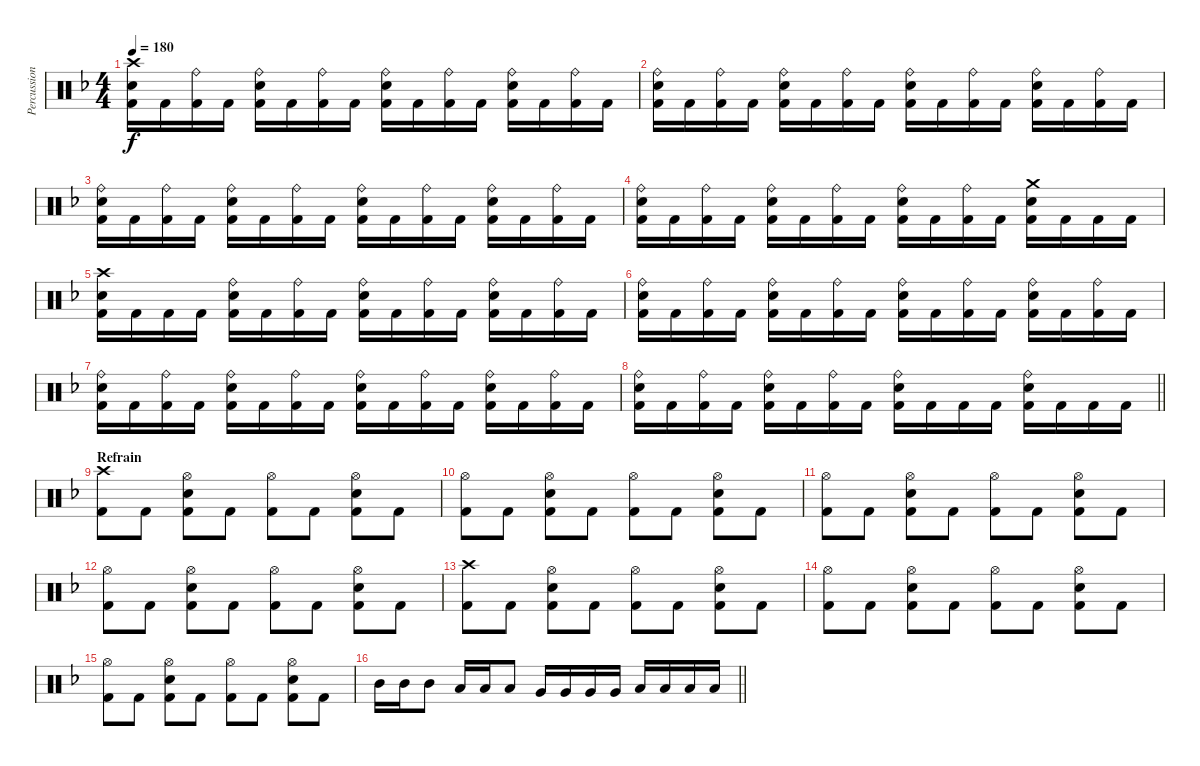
\track ("Percussion" "Percussion") {instrument percussion}
\staff {score}
\articulation defaults
\ts (4 4)
\tempo 180
\clef neutral
\ks dminor
("Crash high (hit)" "Snare (hit) 2" "Kick (hit) 2").16{dy f} "Kick (hit) 2".16 ("Ride (bell)" "Kick (hit) 2").16 "Kick (hit) 2".16 ("Ride (bell)" "Snare (hit) 2" "Kick (hit) 2").16 "Kick (hit) 2".16 ("Ride (bell)" "Kick (hit) 2").16 "Kick (hit) 2".16 ("Ride (bell)" "Snare (hit) 2" "Kick (hit) 2").16 "Kick (hit) 2".16 ("Ride (bell)" "Kick (hit) 2").16 "Kick (hit) 2".16 ("Ride (bell)" "Snare (hit) 2" "Kick (hit) 2").16 "Kick (hit) 2".16 ("Ride (bell)" "Kick (hit) 2").16 "Kick (hit) 2".16 |
("Ride (bell)" "Snare (hit) 2" "Kick (hit) 2").16 "Kick (hit) 2".16 ("Ride (bell)" "Kick (hit) 2").16 "Kick (hit) 2".16 ("Ride (bell)" "Snare (hit) 2" "Kick (hit) 2").16 "Kick (hit) 2".16 ("Ride (bell)" "Kick (hit) 2").16 "Kick (hit) 2".16 ("Ride (bell)" "Snare (hit) 2" "Kick (hit) 2").16 "Kick (hit) 2".16 ("Ride (bell)" "Kick (hit) 2").16 "Kick (hit) 2".16 ("Ride (bell)" "Snare (hit) 2" "Kick (hit) 2").16 "Kick (hit) 2".16 ("Ride (bell)" "Kick (hit) 2").16 "Kick (hit) 2".16 |
("Ride (bell)" "Snare (hit) 2" "Kick (hit) 2").16 "Kick (hit) 2".16 ("Ride (bell)" "Kick (hit) 2").16 "Kick (hit) 2".16 ("Ride (bell)" "Snare (hit) 2" "Kick (hit) 2").16 "Kick (hit) 2".16 ("Ride (bell)" "Kick (hit) 2").16 "Kick (hit) 2".16 ("Ride (bell)" "Snare (hit) 2" "Kick (hit) 2").16 "Kick (hit) 2".16 ("Ride (bell)" "Kick (hit) 2").16 "Kick (hit) 2".16 ("Ride (bell)" "Snare (hit) 2" "Kick (hit) 2").16 "Kick (hit) 2".16 ("Ride (bell)" "Kick (hit) 2").16 "Kick (hit) 2".16 |
("Ride (bell)" "Snare (hit) 2" "Kick (hit) 2").16 "Kick (hit) 2".16 ("Ride (bell)" "Kick (hit) 2").16 "Kick (hit) 2".16 ("Ride (bell)" "Snare (hit) 2" "Kick (hit) 2").16 "Kick (hit) 2".16 ("Ride (bell)" "Kick (hit) 2").16 "Kick (hit) 2".16 ("Ride (bell)" "Snare (hit) 2" "Kick (hit) 2").16 "Kick (hit) 2".16 ("Ride (bell)" "Kick (hit) 2").16 "Kick (hit) 2".16 ("Crash medium (hit)" "Snare (hit) 2" "Kick (hit) 2").16 "Kick (hit) 2".16 "Kick (hit) 2".16 "Kick (hit) 2".16 |
("Crash high (hit)" "Snare (hit) 2" "Kick (hit) 2").16 "Kick (hit) 2".16 "Kick (hit) 2".16 "Kick (hit) 2".16 ("Ride (bell)" "Snare (hit) 2" "Kick (hit) 2").16 "Kick (hit) 2".16 ("Ride (bell)" "Kick (hit) 2").16 "Kick (hit) 2".16 ("Ride (bell)" "Snare (hit) 2" "Kick (hit) 2").16 "Kick (hit) 2".16 ("Ride (bell)" "Kick (hit) 2").16 "Kick (hit) 2".16 ("Ride (bell)" "Snare (hit) 2" "Kick (hit) 2").16 "Kick (hit) 2".16 ("Ride (bell)" "Kick (hit) 2").16 "Kick (hit) 2".16 |
("Ride (bell)" "Snare (hit) 2" "Kick (hit) 2").16 "Kick (hit) 2".16 ("Ride (bell)" "Kick (hit) 2").16 "Kick (hit) 2".16 ("Ride (bell)" "Snare (hit) 2" "Kick (hit) 2").16 "Kick (hit) 2".16 ("Ride (bell)" "Kick (hit) 2").16 "Kick (hit) 2".16 ("Ride (bell)" "Snare (hit) 2" "Kick (hit) 2").16 "Kick (hit) 2".16 ("Ride (bell)" "Kick (hit) 2").16 "Kick (hit) 2".16 ("Ride (bell)" "Snare (hit) 2" "Kick (hit) 2").16 "Kick (hit) 2".16 ("Ride (bell)" "Kick (hit) 2").16 "Kick (hit) 2".16 |
("Ride (bell)" "Snare (hit) 2" "Kick (hit) 2").16 "Kick (hit) 2".16 ("Ride (bell)" "Kick (hit) 2").16 "Kick (hit) 2".16 ("Ride (bell)" "Snare (hit) 2" "Kick (hit) 2").16 "Kick (hit) 2".16 ("Ride (bell)" "Kick (hit) 2").16 "Kick (hit) 2".16 ("Ride (bell)" "Snare (hit) 2" "Kick (hit) 2").16 "Kick (hit) 2".16 ("Ride (bell)" "Kick (hit) 2").16 "Kick (hit) 2".16 ("Ride (bell)" "Snare (hit) 2" "Kick (hit) 2").16 "Kick (hit) 2".16 ("Ride (bell)" "Kick (hit) 2").16 "Kick (hit) 2".16 |
\barLineRight lightlight
("Ride (bell)" "Snare (hit) 2" "Kick (hit) 2").16 "Kick (hit) 2".16 ("Ride (bell)" "Kick (hit) 2").16 "Kick (hit) 2".16 ("Ride (bell)" "Snare (hit) 2" "Kick (hit) 2").16 "Kick (hit) 2".16 ("Ride (bell)" "Kick (hit) 2").16 "Kick (hit) 2".16 ("Ride (bell)" "Snare (hit) 2" "Kick (hit) 2").16 "Kick (hit) 2".16 "Kick (hit) 2".16 "Kick (hit) 2".16 ("Ride (bell)" "Snare (hit) 2" "Kick (hit) 2").16 "Kick (hit) 2".16 "Kick (hit) 2".16 "Kick (hit) 2".16 |
\section ("" "Refrain")
("Crash high (hit)" "Kick (hit) 2").8 "Kick (hit) 2".8 ("Hi-Hat (open)" "Snare (hit) 2" "Kick (hit) 2").8 "Kick (hit) 2".8 ("Hi-Hat (open)" "Kick (hit) 2").8 "Kick (hit) 2".8 ("Hi-Hat (open)" "Snare (hit) 2" "Kick (hit) 2").8 "Kick (hit) 2".8 |
("Hi-Hat (open)" "Kick (hit) 2").8 "Kick (hit) 2".8 ("Hi-Hat (open)" "Snare (hit) 2" "Kick (hit) 2").8 "Kick (hit) 2".8 ("Hi-Hat (open)" "Kick (hit) 2").8 "Kick (hit) 2".8 ("Hi-Hat (open)" "Snare (hit) 2" "Kick (hit) 2").8 "Kick (hit) 2".8 |
("Hi-Hat (open)" "Kick (hit) 2").8 "Kick (hit) 2".8 ("Hi-Hat (open)" "Snare (hit) 2" "Kick (hit) 2").8 "Kick (hit) 2".8 ("Hi-Hat (open)" "Kick (hit) 2").8 "Kick (hit) 2".8 ("Hi-Hat (open)" "Snare (hit) 2" "Kick (hit) 2").8 "Kick (hit) 2".8 |
("Hi-Hat (open)" "Kick (hit) 2").8 "Kick (hit) 2".8 ("Hi-Hat (open)" "Snare (hit) 2" "Kick (hit) 2").8 "Kick (hit) 2".8 ("Hi-Hat (open)" "Kick (hit) 2").8 "Kick (hit) 2".8 ("Hi-Hat (open)" "Snare (hit) 2" "Kick (hit) 2").8 "Kick (hit) 2".8 |
("Crash high (hit)" "Kick (hit) 2").8 "Kick (hit) 2".8 ("Hi-Hat (open)" "Snare (hit) 2" "Kick (hit) 2").8 "Kick (hit) 2".8 ("Hi-Hat (open)" "Kick (hit) 2").8 "Kick (hit) 2".8 ("Hi-Hat (open)" "Snare (hit) 2" "Kick (hit) 2").8 "Kick (hit) 2".8 |
("Hi-Hat (open)" "Kick (hit) 2").8 "Kick (hit) 2".8 ("Hi-Hat (open)" "Snare (hit) 2" "Kick (hit) 2").8 "Kick (hit) 2".8 ("Hi-Hat (open)" "Kick (hit) 2").8 "Kick (hit) 2".8 ("Hi-Hat (open)" "Snare (hit) 2" "Kick (hit) 2").8 "Kick (hit) 2".8 |
("Hi-Hat (open)" "Kick (hit) 2").8 "Kick (hit) 2".8 ("Hi-Hat (open)" "Snare (hit) 2" "Kick (hit) 2").8 "Kick (hit) 2".8 ("Hi-Hat (open)" "Kick (hit) 2").8 "Kick (hit) 2".8 ("Hi-Hat (open)" "Snare (hit) 2" "Kick (hit) 2").8 "Kick (hit) 2".8 |
\barLineRight lightlight "Mid Tom (hit)".16 "Mid Tom (hit)".16 "Mid Tom (hit)".8 "Low Tom (hit)".16 "Low Tom (hit)".16 "Low Tom (hit)".8 "Very Low Tom (hit)".16 "Very Low Tom (hit)".16 "Very Low Tom (hit)".16 "Very Low Tom (hit)".16 "Low Floor Tom (hit)".16 "Low Floor Tom (hit)".16 "Low Floor Tom (hit)".16 "Low Floor Tom (hit)".16
